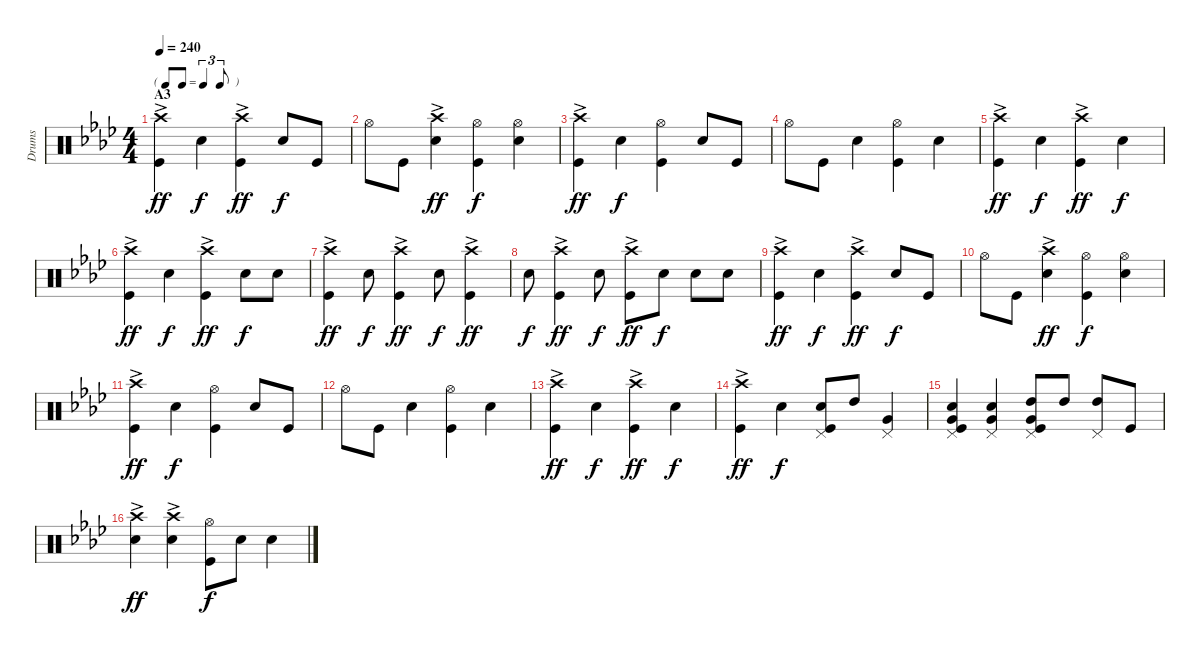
\track ("Drums" "Drums") {instrument percussion}
\staff {score}
\articulation defaults
\ts (4 4)
\tf triplet8th
\section ("" "A3")
\tempo 240
\clef neutral
\ks ab
("Crash high (hit)"{ac} "Kick (hit)").4{dy ff} "Snare (hit) 2".4{dy f} ("Crash high (hit)"{ac} "Kick (hit)").4{dy ff} "Snare (hit) 2".8{dy f} "Kick (hit)".8 |
"Hi-Hat (open)".8 "Kick (hit)".8 ("Crash high (hit)"{ac} "Snare (hit) 2").4{dy ff} ("Kick (hit)" "Hi-Hat (open)").4{dy f} ("Hi-Hat (open)" "Snare (hit) 2").4 |
("Crash high (hit)"{ac} "Kick (hit)").4{dy ff} "Snare (hit) 2".4{dy f} ("Hi-Hat (open)" "Kick (hit)").4 "Snare (hit) 2".8 "Kick (hit)".8 |
"Hi-Hat (open)".8 "Kick (hit)".8 "Snare (hit) 2".4 ("Hi-Hat (open)" "Kick (hit)").4 "Snare (hit) 2".4 |
("Crash high (hit)"{ac} "Kick (hit)").4{dy ff} "Snare (hit) 2".4{dy f} ("Crash high (hit)"{ac} "Kick (hit)").4{dy ff} "Snare (hit) 2".4{dy f} |
("Crash high (hit)"{ac} "Kick (hit)").4{dy ff} "Snare (hit) 2".4{dy f} ("Crash high (hit)"{ac} "Kick (hit)").4{dy ff} "Snare (hit) 2".8{dy f} "Snare (hit) 2".8 |
("Crash high (hit)"{ac} "Kick (hit)").4{dy ff} "Snare (hit) 2".8{dy f} ("Kick (hit)" "Crash high (hit)"{ac}).4{dy ff} "Snare (hit) 2".8{dy f} ("Kick (hit)" "Crash high (hit)"{ac}).4{dy ff} |
"Snare (hit) 2".8{dy f} ("Kick (hit)" "Crash high (hit)"{ac}).4{dy ff} "Snare (hit) 2".8{dy f} ("Kick (hit)" "Crash high (hit)"{ac}).8{dy ff} "Snare (hit) 2".8{dy f} "Snare (hit) 2".8 "Snare (hit) 2".8 |
("Crash high (hit)"{ac} "Kick (hit)").4{dy ff} "Snare (hit) 2".4{dy f} ("Crash high (hit)"{ac} "Kick (hit)").4{dy ff} "Snare (hit) 2".8{dy f} "Kick (hit)".8 |
"Hi-Hat (open)".8 "Kick (hit)".8 ("Crash high (hit)"{ac} "Snare (hit) 2").4{dy ff} ("Kick (hit)" "Hi-Hat (open)").4{dy f} ("Hi-Hat (open)" "Snare (hit) 2").4 |
("Crash high (hit)"{ac} "Kick (hit)").4{dy ff} "Snare (hit) 2".4{dy f} ("Hi-Hat (open)" "Kick (hit)").4 "Snare (hit) 2".8 "Kick (hit)".8 |
"Hi-Hat (open)".8 "Kick (hit)".8 "Snare (hit) 2".4 ("Hi-Hat (open)" "Kick (hit)").4 "Snare (hit) 2".4 |
("Crash high (hit)"{ac} "Kick (hit)").4{dy ff} "Snare (hit) 2".4{dy f} ("Crash high (hit)"{ac} "Kick (hit)").4{dy ff} "Snare (hit) 2".4{dy f} |
("Crash high (hit)"{ac} "Kick (hit)").4{dy ff} "Snare (hit) 2".4{dy f} ("Kick (hit)" "Snare (hit) 2" "Pedal Hi-Hat (hit)").8 "High Tom (hit)".8 ("Very Low Tom (hit)" "Pedal Hi-Hat (hit)").4 |
("Snare (hit) 2" "Very Low Tom (hit)" "Kick (hit)" "Pedal Hi-Hat (hit)").4 ("Snare (hit) 2" "Very Low Tom (hit)" "Pedal Hi-Hat (hit)").4 ("Kick (hit)" "Very Low Tom (hit)" "High Tom (hit)" "Pedal Hi-Hat (hit)").8 "High Tom (hit)".8 ("High Tom (hit)" "Pedal Hi-Hat (hit)").8 "Kick (hit)".8 |
("Crash high (hit)"{ac} "Snare (hit) 2").4{dy ff} ("Snare (hit) 2" "Crash high (hit)"{ac}).4 ("Hi-Hat (open)" "Kick (hit)").8{dy f} "Snare (hit) 2".8 "Snare (hit) 2".4
